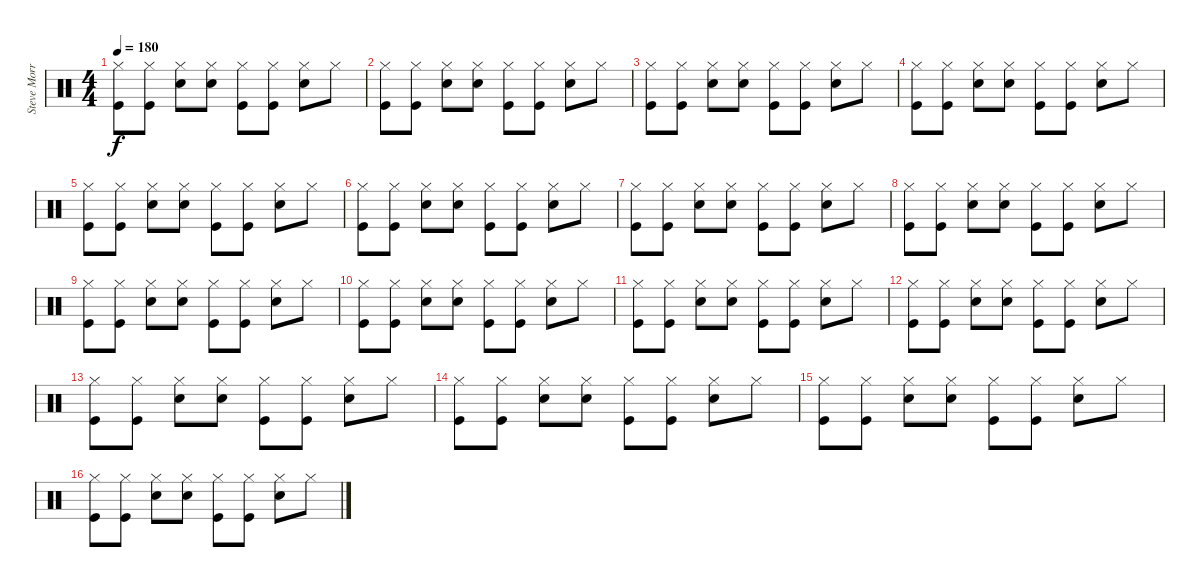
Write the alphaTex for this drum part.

\track ("Steve Morris" "Steve Morr") {instrument percussion}
\staff {score}
\articulation defaults
\ts (4 4)
\tempo 180
\clef neutral
\ks c
("Hi-Hat (closed)" "Kick (hit)").8{dy f} ("Hi-Hat (closed)" "Kick (hit)").8 ("Hi-Hat (closed)" "Electric Snare (hit)").8 ("Hi-Hat (closed)" "Electric Snare (hit)").8 ("Hi-Hat (closed)" "Kick (hit)").8 ("Hi-Hat (closed)" "Kick (hit)").8 ("Hi-Hat (closed)" "Electric Snare (hit)").8 "Hi-Hat (closed)".8 |
("Hi-Hat (closed)" "Kick (hit)").8 ("Hi-Hat (closed)" "Kick (hit)").8 ("Hi-Hat (closed)" "Electric Snare (hit)").8 ("Hi-Hat (closed)" "Electric Snare (hit)").8 ("Hi-Hat (closed)" "Kick (hit)").8 ("Hi-Hat (closed)" "Kick (hit)").8 ("Hi-Hat (closed)" "Electric Snare (hit)").8 "Hi-Hat (closed)".8 |
("Hi-Hat (closed)" "Kick (hit)").8 ("Hi-Hat (closed)" "Kick (hit)").8 ("Hi-Hat (closed)" "Electric Snare (hit)").8 ("Hi-Hat (closed)" "Electric Snare (hit)").8 ("Hi-Hat (closed)" "Kick (hit)").8 ("Hi-Hat (closed)" "Kick (hit)").8 ("Hi-Hat (closed)" "Electric Snare (hit)").8 "Hi-Hat (closed)".8 |
("Hi-Hat (closed)" "Kick (hit)").8 ("Hi-Hat (closed)" "Kick (hit)").8 ("Hi-Hat (closed)" "Electric Snare (hit)").8 ("Hi-Hat (closed)" "Electric Snare (hit)").8 ("Hi-Hat (closed)" "Kick (hit)").8 ("Hi-Hat (closed)" "Kick (hit)").8 ("Hi-Hat (closed)" "Electric Snare (hit)").8 "Hi-Hat (closed)".8 |
("Hi-Hat (closed)" "Kick (hit)").8 ("Hi-Hat (closed)" "Kick (hit)").8 ("Hi-Hat (closed)" "Electric Snare (hit)").8 ("Hi-Hat (closed)" "Electric Snare (hit)").8 ("Hi-Hat (closed)" "Kick (hit)").8 ("Hi-Hat (closed)" "Kick (hit)").8 ("Hi-Hat (closed)" "Electric Snare (hit)").8 "Hi-Hat (closed)".8 |
("Hi-Hat (closed)" "Kick (hit)").8 ("Hi-Hat (closed)" "Kick (hit)").8 ("Hi-Hat (closed)" "Electric Snare (hit)").8 ("Hi-Hat (closed)" "Electric Snare (hit)").8 ("Hi-Hat (closed)" "Kick (hit)").8 ("Hi-Hat (closed)" "Kick (hit)").8 ("Hi-Hat (closed)" "Electric Snare (hit)").8 "Hi-Hat (closed)".8 |
("Hi-Hat (closed)" "Kick (hit)").8 ("Hi-Hat (closed)" "Kick (hit)").8 ("Hi-Hat (closed)" "Electric Snare (hit)").8 ("Hi-Hat (closed)" "Electric Snare (hit)").8 ("Hi-Hat (closed)" "Kick (hit)").8 ("Hi-Hat (closed)" "Kick (hit)").8 ("Hi-Hat (closed)" "Electric Snare (hit)").8 "Hi-Hat (closed)".8 |
("Hi-Hat (closed)" "Kick (hit)").8 ("Hi-Hat (closed)" "Kick (hit)").8 ("Hi-Hat (closed)" "Electric Snare (hit)").8 ("Hi-Hat (closed)" "Electric Snare (hit)").8 ("Hi-Hat (closed)" "Kick (hit)").8 ("Hi-Hat (closed)" "Kick (hit)").8 ("Hi-Hat (closed)" "Electric Snare (hit)").8 "Hi-Hat (closed)".8 |
("Hi-Hat (closed)" "Kick (hit)").8 ("Hi-Hat (closed)" "Kick (hit)").8 ("Hi-Hat (closed)" "Electric Snare (hit)").8 ("Hi-Hat (closed)" "Electric Snare (hit)").8 ("Hi-Hat (closed)" "Kick (hit)").8 ("Hi-Hat (closed)" "Kick (hit)").8 ("Hi-Hat (closed)" "Electric Snare (hit)").8 "Hi-Hat (closed)".8 |
("Hi-Hat (closed)" "Kick (hit)").8 ("Hi-Hat (closed)" "Kick (hit)").8 ("Hi-Hat (closed)" "Electric Snare (hit)").8 ("Hi-Hat (closed)" "Electric Snare (hit)").8 ("Hi-Hat (closed)" "Kick (hit)").8 ("Hi-Hat (closed)" "Kick (hit)").8 ("Hi-Hat (closed)" "Electric Snare (hit)").8 "Hi-Hat (closed)".8 |
("Hi-Hat (closed)" "Kick (hit)").8 ("Hi-Hat (closed)" "Kick (hit)").8 ("Hi-Hat (closed)" "Electric Snare (hit)").8 ("Hi-Hat (closed)" "Electric Snare (hit)").8 ("Hi-Hat (closed)" "Kick (hit)").8 ("Hi-Hat (closed)" "Kick (hit)").8 ("Hi-Hat (closed)" "Electric Snare (hit)").8 "Hi-Hat (closed)".8 |
("Hi-Hat (closed)" "Kick (hit)").8 ("Hi-Hat (closed)" "Kick (hit)").8 ("Hi-Hat (closed)" "Electric Snare (hit)").8 ("Hi-Hat (closed)" "Electric Snare (hit)").8 ("Hi-Hat (closed)" "Kick (hit)").8 ("Hi-Hat (closed)" "Kick (hit)").8 ("Hi-Hat (closed)" "Electric Snare (hit)").8 "Hi-Hat (closed)".8 |
("Hi-Hat (closed)" "Kick (hit)").8 ("Hi-Hat (closed)" "Kick (hit)").8 ("Hi-Hat (closed)" "Electric Snare (hit)").8 ("Hi-Hat (closed)" "Electric Snare (hit)").8 ("Hi-Hat (closed)" "Kick (hit)").8 ("Hi-Hat (closed)" "Kick (hit)").8 ("Hi-Hat (closed)" "Electric Snare (hit)").8 "Hi-Hat (closed)".8 |
("Hi-Hat (closed)" "Kick (hit)").8 ("Hi-Hat (closed)" "Kick (hit)").8 ("Hi-Hat (closed)" "Electric Snare (hit)").8 ("Hi-Hat (closed)" "Electric Snare (hit)").8 ("Hi-Hat (closed)" "Kick (hit)").8 ("Hi-Hat (closed)" "Kick (hit)").8 ("Hi-Hat (closed)" "Electric Snare (hit)").8 "Hi-Hat (closed)".8 |
("Hi-Hat (closed)" "Kick (hit)").8 ("Hi-Hat (closed)" "Kick (hit)").8 ("Hi-Hat (closed)" "Electric Snare (hit)").8 ("Hi-Hat (closed)" "Electric Snare (hit)").8 ("Hi-Hat (closed)" "Kick (hit)").8 ("Hi-Hat (closed)" "Kick (hit)").8 ("Hi-Hat (closed)" "Electric Snare (hit)").8 "Hi-Hat (closed)".8 |
("Hi-Hat (closed)" "Kick (hit)").8 ("Hi-Hat (closed)" "Kick (hit)").8 ("Hi-Hat (closed)" "Electric Snare (hit)").8 ("Hi-Hat (closed)" "Electric Snare (hit)").8 ("Hi-Hat (closed)" "Kick (hit)").8 ("Hi-Hat (closed)" "Kick (hit)").8 ("Hi-Hat (closed)" "Electric Snare (hit)").8 "Hi-Hat (closed)".8
